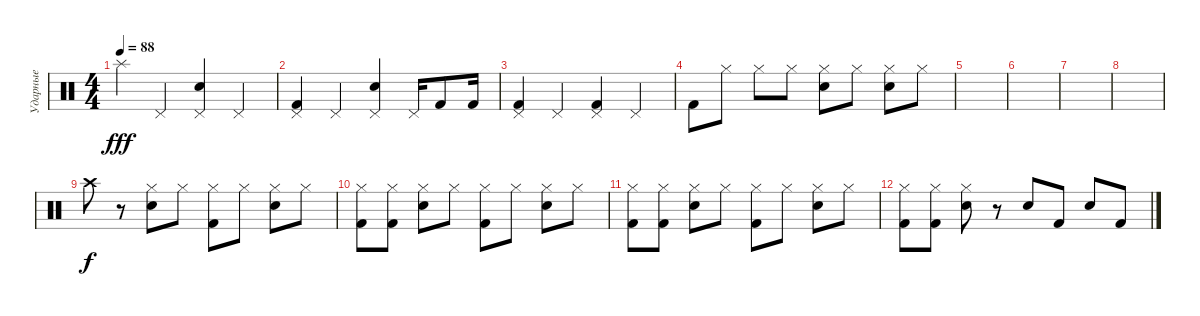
\track ("Ударные" "Ударные") {instrument percussion}
\staff {score}
\articulation defaults
\ts (4 4)
\tempo 88
\clef neutral
\ks c "Splash (hit)".4{dy fff} "Pedal Hi-Hat (hit)".4
("Pedal Hi-Hat (hit)" "Snare (hit) 2").4 "Pedal Hi-Hat (hit)".4 |
("Pedal Hi-Hat (hit)" "Kick (hit) 2").4 "Pedal Hi-Hat (hit)".4 ("Pedal Hi-Hat (hit)" "Snare (hit) 2").4 "Pedal Hi-Hat (hit)".16 "Kick (hit) 2".8 "Kick (hit) 2".16 |
("Pedal Hi-Hat (hit)" "Kick (hit) 2").4 "Pedal Hi-Hat (hit)".4 ("Pedal Hi-Hat (hit)" "Kick (hit) 2").4 "Pedal Hi-Hat (hit)".4 |
"Kick (hit) 2".8 "Hi-Hat (closed)".8 "Hi-Hat (closed)".8 "Hi-Hat (closed)".8 ("Hi-Hat (closed)" "Snare (hit) 2").8 "Hi-Hat (closed)".8 ("Hi-Hat (closed)" "Snare (hit) 2").8 "Hi-Hat (closed)".8 |
|
|
|
|
"Crash high (hit)".8{dy f} r.8 ("Hi-Hat (closed)" "Snare (hit) 2").8 "Hi-Hat (closed)".8 ("Hi-Hat (closed)" "Kick (hit) 2").8 "Hi-Hat (closed)".8 ("Hi-Hat (closed)" "Snare (hit) 2").8 "Hi-Hat (closed)".8 |
("Hi-Hat (closed)" "Kick (hit) 2").8 ("Hi-Hat (closed)" "Kick (hit) 2").8 ("Hi-Hat (closed)" "Snare (hit) 2").8 "Hi-Hat (closed)".8 ("Hi-Hat (closed)" "Kick (hit) 2").8 "Hi-Hat (closed)".8 ("Hi-Hat (closed)" "Snare (hit) 2").8 "Hi-Hat (closed)".8 |
("Hi-Hat (closed)" "Kick (hit) 2").8 ("Hi-Hat (closed)" "Kick (hit) 2").8 ("Hi-Hat (closed)" "Snare (hit) 2").8 "Hi-Hat (closed)".8 ("Hi-Hat (closed)" "Kick (hit) 2").8 "Hi-Hat (closed)".8 ("Hi-Hat (closed)" "Snare (hit) 2").8 "Hi-Hat (closed)".8 |
("Hi-Hat (closed)" "Kick (hit) 2").8 ("Hi-Hat (closed)" "Kick (hit) 2").8 ("Hi-Hat (closed)" "Snare (hit) 2").8 r.8 "Snare (hit) 2".8 "Kick (hit) 2".8 "Snare (hit) 2".8 "Kick (hit) 2".8
